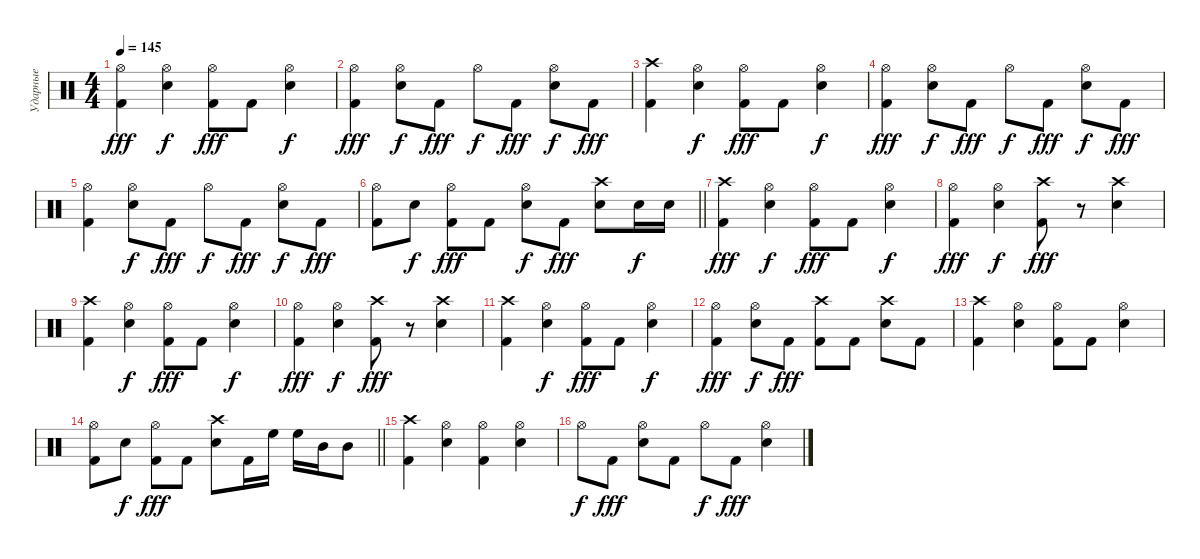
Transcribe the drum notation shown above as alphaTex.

\track ("Ударные" "Ударные") {instrument percussion}
\staff {score}
\articulation defaults
\ts (4 4)
\tempo 145
\clef neutral
\ks c
("Kick (hit) 2" "Hi-Hat (open)").4{dy fff} ("Snare (hit) 2" "Hi-Hat (open)").4{dy f} ("Kick (hit) 2" "Hi-Hat (open)").8{dy fff} "Kick (hit) 2".8 ("Snare (hit) 2" "Hi-Hat (open)").4{dy f} |
("Kick (hit) 2" "Hi-Hat (open)").4{dy fff} ("Snare (hit) 2" "Hi-Hat (open)").8{dy f} "Kick (hit) 2".8{dy fff} "Hi-Hat (open)".8{dy f} "Kick (hit) 2".8{dy fff} ("Snare (hit) 2" "Hi-Hat (open)").8{dy f} "Kick (hit) 2".8{dy fff} |
("Kick (hit) 2" "Crash high (hit)").4 ("Snare (hit) 2" "Hi-Hat (open)").4{dy f} ("Kick (hit) 2" "Hi-Hat (open)").8{dy fff} "Kick (hit) 2".8 ("Snare (hit) 2" "Hi-Hat (open)").4{dy f} |
("Kick (hit) 2" "Hi-Hat (open)").4{dy fff} ("Snare (hit) 2" "Hi-Hat (open)").8{dy f} "Kick (hit) 2".8{dy fff} "Hi-Hat (open)".8{dy f} "Kick (hit) 2".8{dy fff} ("Snare (hit) 2" "Hi-Hat (open)").8{dy f} "Kick (hit) 2".8{dy fff} |
("Kick (hit) 2" "Hi-Hat (open)").4 ("Snare (hit) 2" "Hi-Hat (open)").8{dy f} "Kick (hit) 2".8{dy fff} "Hi-Hat (open)".8{dy f} "Kick (hit) 2".8{dy fff} ("Snare (hit) 2" "Hi-Hat (open)").8{dy f} "Kick (hit) 2".8{dy fff} |
\barLineRight lightlight
("Kick (hit) 2" "Hi-Hat (open)").8 "Snare (hit) 2".8{dy f} ("Kick (hit) 2" "Hi-Hat (open)").8{dy fff} "Kick (hit) 2".8 ("Snare (hit) 2" "Hi-Hat (open)").8{dy f} "Kick (hit) 2".8{dy fff} ("Snare (hit) 2" "Crash high (hit)").8 "Snare (hit) 2".16{dy f} "Snare (hit) 2".16 |
("Kick (hit) 2" "Crash high (hit)").4{dy fff} ("Snare (hit) 2" "Hi-Hat (open)").4{dy f} ("Kick (hit) 2" "Hi-Hat (open)").8{dy fff} "Kick (hit) 2".8 ("Snare (hit) 2" "Hi-Hat (open)").4{dy f} |
("Kick (hit) 2" "Hi-Hat (open)").4{dy fff} ("Snare (hit) 2" "Hi-Hat (open)").4{dy f} ("Kick (hit) 2" "Crash high (hit)").8{dy fff} r.8 ("Snare (hit) 2" "Crash high (hit)").4 |
("Kick (hit) 2" "Crash high (hit)").4 ("Snare (hit) 2" "Hi-Hat (open)").4{dy f} ("Kick (hit) 2" "Hi-Hat (open)").8{dy fff} "Kick (hit) 2".8 ("Snare (hit) 2" "Hi-Hat (open)").4{dy f} |
("Kick (hit) 2" "Hi-Hat (open)").4{dy fff} ("Snare (hit) 2" "Hi-Hat (open)").4{dy f} ("Kick (hit) 2" "Crash high (hit)").8{dy fff} r.8 ("Snare (hit) 2" "Crash high (hit)").4 |
("Kick (hit) 2" "Crash high (hit)").4 ("Snare (hit) 2" "Hi-Hat (open)").4{dy f} ("Kick (hit) 2" "Hi-Hat (open)").8{dy fff} "Kick (hit) 2".8 ("Snare (hit) 2" "Hi-Hat (open)").4{dy f} |
("Kick (hit) 2" "Hi-Hat (open)").4{dy fff} ("Snare (hit) 2" "Hi-Hat (open)").8{dy f} "Kick (hit) 2".8{dy fff} ("Kick (hit) 2" "Crash high (hit)").8 "Kick (hit) 2".8 ("Snare (hit) 2" "Crash high (hit)").8 "Kick (hit) 2".8 |
("Kick (hit) 2" "Crash high (hit)").4 ("Snare (hit) 2" "Hi-Hat (open)").4 ("Kick (hit) 2" "Hi-Hat (open)").8 "Kick (hit) 2".8 ("Snare (hit) 2" "Hi-Hat (open)").4 |
\barLineRight lightlight
("Kick (hit) 2" "Hi-Hat (open)").8 "Snare (hit) 2".8{dy f} ("Kick (hit) 2" "Hi-Hat (open)").8{dy fff} "Kick (hit) 2".8 ("Snare (hit) 2" "Crash high (hit)").8 "Kick (hit) 2".16 "High Floor Tom (hit)".16 "High Floor Tom (hit)".16 "Mid Tom (hit)".16 "Mid Tom (hit)".8 |
("Kick (hit) 2" "Crash high (hit)").4 ("Snare (hit) 2" "Hi-Hat (open)").4 ("Kick (hit) 2" "Hi-Hat (open)").4 ("Snare (hit) 2" "Hi-Hat (open)").4 |
"Hi-Hat (open)".8{dy f} "Kick (hit) 2".8{dy fff} ("Snare (hit) 2" "Hi-Hat (open)").8 "Kick (hit) 2".8 "Hi-Hat (open)".8{dy f} "Kick (hit) 2".8{dy fff} ("Snare (hit) 2" "Hi-Hat (open)").4
